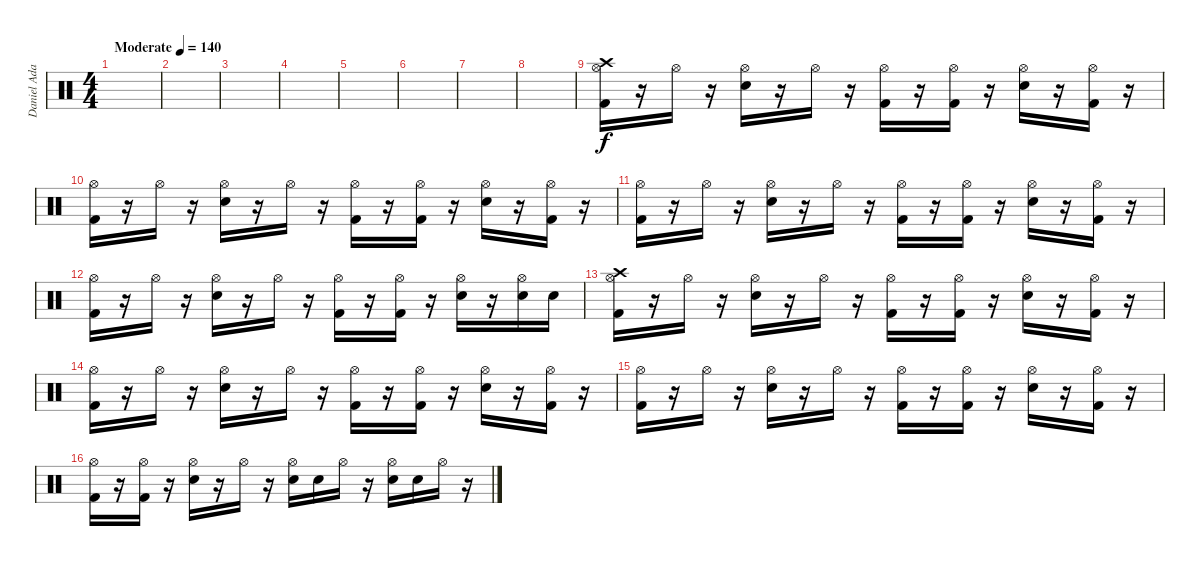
\track ("Daniel Adair" "Daniel Ada") {instrument percussion}
\staff {score}
\articulation defaults
\ts (4 4)
\tempo (140 "Moderate")
\clef neutral
\ks c
|
|
|
|
|
|
|
|
("Crash high (hit)" "Hi-Hat (open)" "Kick (hit) 2").16 r.16 "Hi-Hat (open)".16 r.16 ("Hi-Hat (open)" "Snare (hit) 2").16 r.16 "Hi-Hat (open)".16 r.16 ("Hi-Hat (open)" "Kick (hit) 2").16 r.16 ("Hi-Hat (open)" "Kick (hit) 2").16 r.16 ("Hi-Hat (open)" "Snare (hit) 2").16 r.16 ("Hi-Hat (open)" "Kick (hit) 2").16 r.16 |
("Hi-Hat (open)" "Kick (hit) 2").16 r.16 "Hi-Hat (open)".16 r.16 ("Hi-Hat (open)" "Snare (hit) 2").16 r.16 "Hi-Hat (open)".16 r.16 ("Hi-Hat (open)" "Kick (hit) 2").16 r.16 ("Hi-Hat (open)" "Kick (hit) 2").16 r.16 ("Hi-Hat (open)" "Snare (hit) 2").16 r.16 ("Hi-Hat (open)" "Kick (hit) 2").16 r.16 |
("Hi-Hat (open)" "Kick (hit) 2").16 r.16 "Hi-Hat (open)".16 r.16 ("Hi-Hat (open)" "Snare (hit) 2").16 r.16 "Hi-Hat (open)".16 r.16 ("Hi-Hat (open)" "Kick (hit) 2").16 r.16 ("Hi-Hat (open)" "Kick (hit) 2").16 r.16 ("Hi-Hat (open)" "Snare (hit) 2").16 r.16 ("Hi-Hat (open)" "Kick (hit) 2").16 r.16 |
("Hi-Hat (open)" "Kick (hit) 2").16 r.16 "Hi-Hat (open)".16 r.16 ("Hi-Hat (open)" "Snare (hit) 2").16 r.16 "Hi-Hat (open)".16 r.16 ("Hi-Hat (open)" "Kick (hit) 2").16 r.16 ("Hi-Hat (open)" "Kick (hit) 2").16 r.16 ("Hi-Hat (open)" "Snare (hit) 2").16 r.16 ("Hi-Hat (open)" "Snare (hit) 2").16 "Snare (hit) 2".16 |
("Crash high (hit)" "Hi-Hat (open)" "Kick (hit) 2").16 r.16 "Hi-Hat (open)".16 r.16 ("Hi-Hat (open)" "Snare (hit) 2").16 r.16 "Hi-Hat (open)".16 r.16 ("Hi-Hat (open)" "Kick (hit) 2").16 r.16 ("Hi-Hat (open)" "Kick (hit) 2").16 r.16 ("Hi-Hat (open)" "Snare (hit) 2").16 r.16 ("Hi-Hat (open)" "Kick (hit) 2").16 r.16 |
("Hi-Hat (open)" "Kick (hit) 2").16 r.16 "Hi-Hat (open)".16 r.16 ("Hi-Hat (open)" "Snare (hit) 2").16 r.16 "Hi-Hat (open)".16 r.16 ("Hi-Hat (open)" "Kick (hit) 2").16 r.16 ("Hi-Hat (open)" "Kick (hit) 2").16 r.16 ("Hi-Hat (open)" "Snare (hit) 2").16 r.16 ("Hi-Hat (open)" "Kick (hit) 2").16 r.16 |
("Hi-Hat (open)" "Kick (hit) 2").16 r.16 "Hi-Hat (open)".16 r.16 ("Hi-Hat (open)" "Snare (hit) 2").16 r.16 "Hi-Hat (open)".16 r.16 ("Hi-Hat (open)" "Kick (hit) 2").16 r.16 ("Hi-Hat (open)" "Kick (hit) 2").16 r.16 ("Hi-Hat (open)" "Snare (hit) 2").16 r.16 ("Hi-Hat (open)" "Kick (hit) 2").16 r.16 |
("Hi-Hat (open)" "Kick (hit) 2").16 r.16 ("Hi-Hat (open)" "Kick (hit) 2").16 r.16 ("Hi-Hat (open)" "Snare (hit) 2").16 r.16 "Hi-Hat (open)".16 r.16 ("Hi-Hat (open)" "Snare (hit) 2").16 "Snare (hit) 2".16 "Hi-Hat (open)".16 r.16 ("Hi-Hat (open)" "Snare (hit) 2").16 "Snare (hit) 2".16 "Hi-Hat (open)".16 r.16
